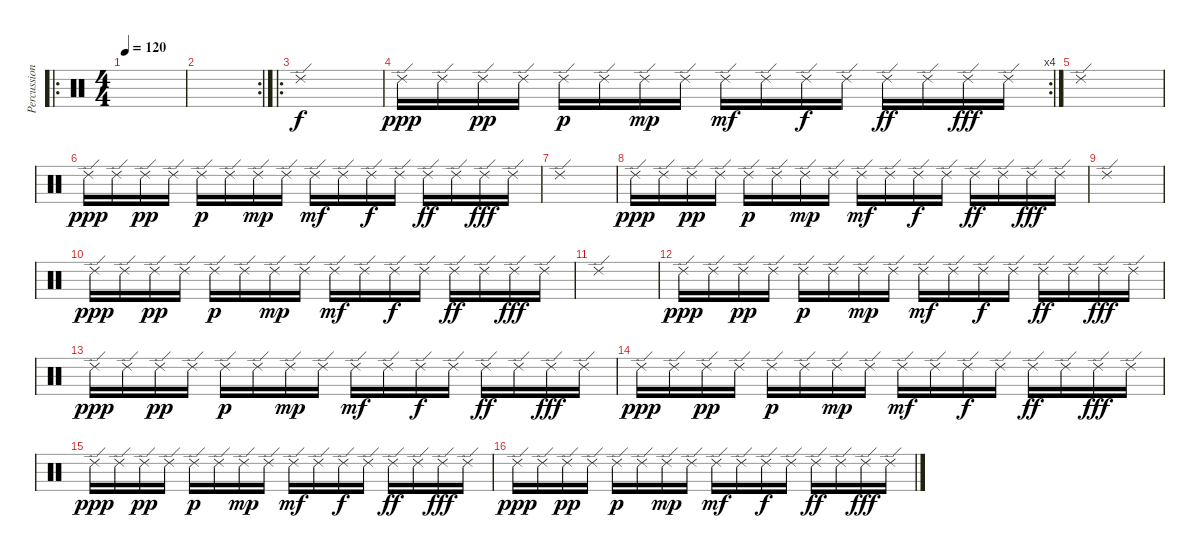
\track ("Percussion" "Percussion") {instrument percussion}
\staff {score}
\articulation defaults
\ro
\ts (4 4)
\tempo 120
\clef neutral
\ks c
|
\rc 2
|
\ro "Ride (edge) 2".1
|
\rc 4 "Ride (edge) 2".16{dy ppp} "Ride (edge) 2".16 "Ride (edge) 2".16{dy pp} "Ride (edge) 2".16 "Ride (edge) 2".16{dy p} "Ride (edge) 2".16 "Ride (edge) 2".16{dy mp} "Ride (edge) 2".16 "Ride (edge) 2".16{dy mf} "Ride (edge) 2".16 "Ride (edge) 2".16{dy f} "Ride (edge) 2".16 "Ride (edge) 2".16{dy ff} "Ride (edge) 2".16 "Ride (edge) 2".16{dy fff} "Ride (edge) 2".16
|
"Ride (edge) 2".1 |
"Ride (edge) 2".16{dy ppp} "Ride (edge) 2".16 "Ride (edge) 2".16{dy pp} "Ride (edge) 2".16 "Ride (edge) 2".16{dy p} "Ride (edge) 2".16 "Ride (edge) 2".16{dy mp} "Ride (edge) 2".16 "Ride (edge) 2".16{dy mf} "Ride (edge) 2".16 "Ride (edge) 2".16{dy f} "Ride (edge) 2".16 "Ride (edge) 2".16{dy ff} "Ride (edge) 2".16 "Ride (edge) 2".16{dy fff} "Ride (edge) 2".16 |
"Ride (edge) 2".1 |
"Ride (edge) 2".16{dy ppp} "Ride (edge) 2".16 "Ride (edge) 2".16{dy pp} "Ride (edge) 2".16 "Ride (edge) 2".16{dy p} "Ride (edge) 2".16 "Ride (edge) 2".16{dy mp} "Ride (edge) 2".16 "Ride (edge) 2".16{dy mf} "Ride (edge) 2".16 "Ride (edge) 2".16{dy f} "Ride (edge) 2".16 "Ride (edge) 2".16{dy ff} "Ride (edge) 2".16 "Ride (edge) 2".16{dy fff} "Ride (edge) 2".16 |
"Ride (edge) 2".1 |
"Ride (edge) 2".16{dy ppp} "Ride (edge) 2".16 "Ride (edge) 2".16{dy pp} "Ride (edge) 2".16 "Ride (edge) 2".16{dy p} "Ride (edge) 2".16 "Ride (edge) 2".16{dy mp} "Ride (edge) 2".16 "Ride (edge) 2".16{dy mf} "Ride (edge) 2".16 "Ride (edge) 2".16{dy f} "Ride (edge) 2".16 "Ride (edge) 2".16{dy ff} "Ride (edge) 2".16 "Ride (edge) 2".16{dy fff} "Ride (edge) 2".16 |
"Ride (edge) 2".1 |
"Ride (edge) 2".16{dy ppp} "Ride (edge) 2".16 "Ride (edge) 2".16{dy pp} "Ride (edge) 2".16 "Ride (edge) 2".16{dy p} "Ride (edge) 2".16 "Ride (edge) 2".16{dy mp} "Ride (edge) 2".16 "Ride (edge) 2".16{dy mf} "Ride (edge) 2".16 "Ride (edge) 2".16{dy f} "Ride (edge) 2".16 "Ride (edge) 2".16{dy ff} "Ride (edge) 2".16 "Ride (edge) 2".16{dy fff} "Ride (edge) 2".16 |
"Ride (edge) 2".16{dy ppp} "Ride (edge) 2".16 "Ride (edge) 2".16{dy pp} "Ride (edge) 2".16 "Ride (edge) 2".16{dy p} "Ride (edge) 2".16 "Ride (edge) 2".16{dy mp} "Ride (edge) 2".16 "Ride (edge) 2".16{dy mf} "Ride (edge) 2".16 "Ride (edge) 2".16{dy f} "Ride (edge) 2".16 "Ride (edge) 2".16{dy ff} "Ride (edge) 2".16 "Ride (edge) 2".16{dy fff} "Ride (edge) 2".16 |
"Ride (edge) 2".16{dy ppp} "Ride (edge) 2".16 "Ride (edge) 2".16{dy pp} "Ride (edge) 2".16 "Ride (edge) 2".16{dy p} "Ride (edge) 2".16 "Ride (edge) 2".16{dy mp} "Ride (edge) 2".16 "Ride (edge) 2".16{dy mf} "Ride (edge) 2".16 "Ride (edge) 2".16{dy f} "Ride (edge) 2".16 "Ride (edge) 2".16{dy ff} "Ride (edge) 2".16 "Ride (edge) 2".16{dy fff} "Ride (edge) 2".16 |
"Ride (edge) 2".16{dy ppp} "Ride (edge) 2".16 "Ride (edge) 2".16{dy pp} "Ride (edge) 2".16 "Ride (edge) 2".16{dy p} "Ride (edge) 2".16 "Ride (edge) 2".16{dy mp} "Ride (edge) 2".16 "Ride (edge) 2".16{dy mf} "Ride (edge) 2".16 "Ride (edge) 2".16{dy f} "Ride (edge) 2".16 "Ride (edge) 2".16{dy ff} "Ride (edge) 2".16 "Ride (edge) 2".16{dy fff} "Ride (edge) 2".16 |
"Ride (edge) 2".16{dy ppp} "Ride (edge) 2".16 "Ride (edge) 2".16{dy pp} "Ride (edge) 2".16 "Ride (edge) 2".16{dy p} "Ride (edge) 2".16 "Ride (edge) 2".16{dy mp} "Ride (edge) 2".16 "Ride (edge) 2".16{dy mf} "Ride (edge) 2".16 "Ride (edge) 2".16{dy f} "Ride (edge) 2".16 "Ride (edge) 2".16{dy ff} "Ride (edge) 2".16 "Ride (edge) 2".16{dy fff} "Ride (edge) 2".16
